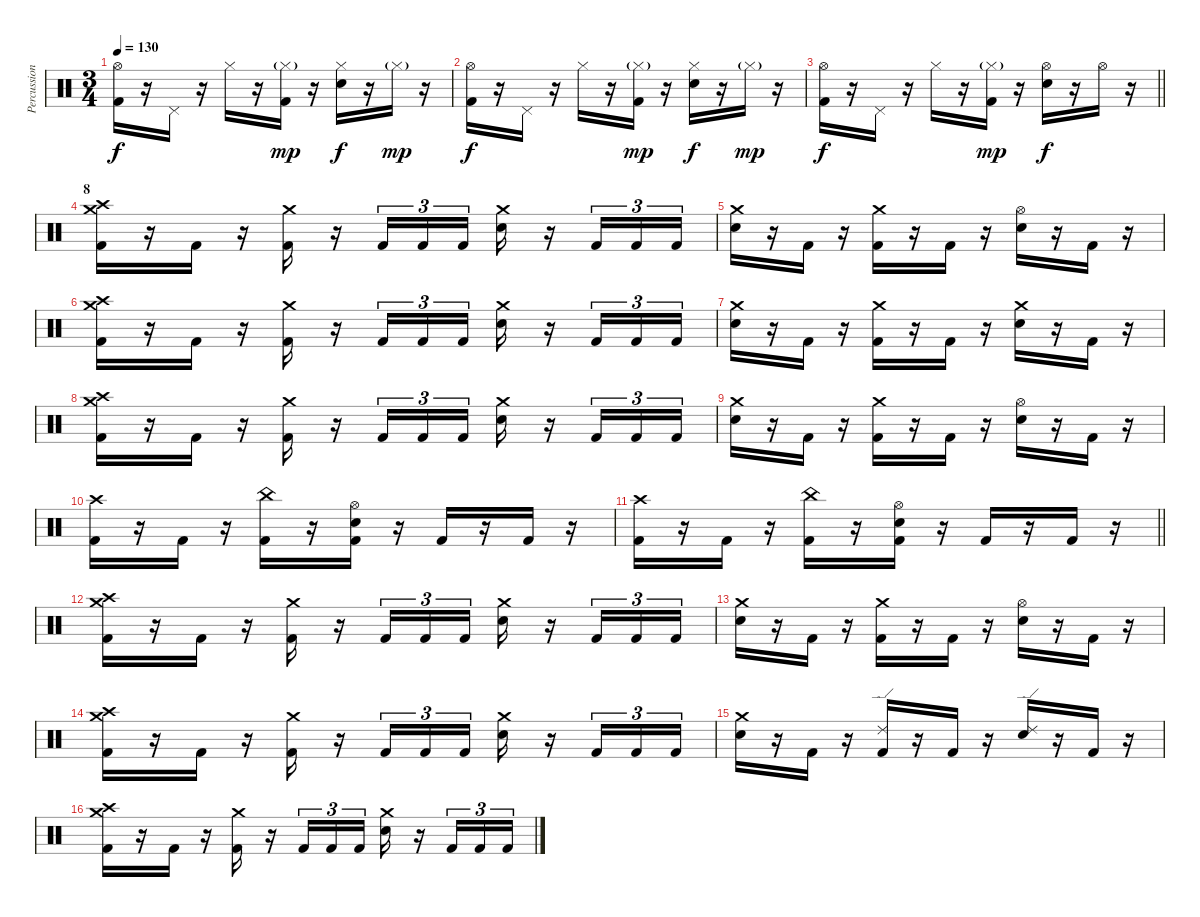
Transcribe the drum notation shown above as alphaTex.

\track ("Percussion" "Percussion") {instrument percussion}
\staff {score}
\articulation defaults
\ts (3 4)
\tempo 130
\clef neutral
\ks c
("Hi-Hat (open)" "Kick (hit) 2").16{dy f} r.16 "Pedal Hi-Hat (hit)".16 r.16 "Hi-Hat (closed)".16 r.16 ("Hi-Hat (closed)"{g} "Kick (hit) 2").16{dy mp} r.16 ("Hi-Hat (closed)" "Snare (hit) 2").16{dy f} r.16 "Hi-Hat (closed)"{g}.16{dy mp} r.16 |
("Hi-Hat (open)" "Kick (hit) 2").16{dy f} r.16 "Pedal Hi-Hat (hit)".16 r.16 "Hi-Hat (closed)".16 r.16 ("Hi-Hat (closed)"{g} "Kick (hit) 2").16{dy mp} r.16 ("Hi-Hat (closed)" "Snare (hit) 2").16{dy f} r.16 "Hi-Hat (closed)"{g}.16{dy mp} r.16 |
\barLineRight lightlight
("Hi-Hat (open)" "Kick (hit) 2").16{dy f} r.16 "Pedal Hi-Hat (hit)".16 r.16 "Hi-Hat (closed)".16 r.16 ("Hi-Hat (closed)"{g} "Kick (hit) 2").16{dy mp} r.16 ("Hi-Hat (open)" "Snare (hit) 2").16{dy f} r.16 "Hi-Hat (open)".16 r.16 |
\section ("" "8")
("Crash medium (hit)" "Crash high (hit)" "Kick (hit) 2").16 r.16 "Kick (hit) 2".16 r.16 ("Crash medium (hit)" "Kick (hit) 2").16 r.16 "Kick (hit) 2".16{tu (3 2)} "Kick (hit) 2".16{tu (3 2)} "Kick (hit) 2".16{tu (3 2)} ("Crash medium (hit)" "Snare (hit) 2").16 r.16 "Kick (hit) 2".16{tu (3 2)} "Kick (hit) 2".16{tu (3 2)} "Kick (hit) 2".16{tu (3 2)} |
("Crash medium (hit)" "Snare (hit) 2").16 r.16 "Kick (hit) 2".16 r.16 ("Crash medium (hit)" "Kick (hit) 2").16 r.16 "Kick (hit) 2".16 r.16 ("Hi-Hat (open)" "Snare (hit) 2").16 r.16 "Kick (hit) 2".16 r.16 |
("Crash medium (hit)" "Crash high (hit)" "Kick (hit) 2").16 r.16 "Kick (hit) 2".16 r.16 ("Crash medium (hit)" "Kick (hit) 2").16 r.16 "Kick (hit) 2".16{tu (3 2)} "Kick (hit) 2".16{tu (3 2)} "Kick (hit) 2".16{tu (3 2)} ("Crash medium (hit)" "Snare (hit) 2").16 r.16 "Kick (hit) 2".16{tu (3 2)} "Kick (hit) 2".16{tu (3 2)} "Kick (hit) 2".16{tu (3 2)} |
("Crash medium (hit)" "Snare (hit) 2").16 r.16 "Kick (hit) 2".16 r.16 ("Crash medium (hit)" "Kick (hit) 2").16 r.16 "Kick (hit) 2".16 r.16 ("Crash medium (hit)" "Snare (hit) 2").16 r.16 "Kick (hit) 2".16 r.16 |
("Crash medium (hit)" "Crash high (hit)" "Kick (hit) 2").16 r.16 "Kick (hit) 2".16 r.16 ("Crash medium (hit)" "Kick (hit) 2").16 r.16 "Kick (hit) 2".16{tu (3 2)} "Kick (hit) 2".16{tu (3 2)} "Kick (hit) 2".16{tu (3 2)} ("Crash medium (hit)" "Snare (hit) 2").16 r.16 "Kick (hit) 2".16{tu (3 2)} "Kick (hit) 2".16{tu (3 2)} "Kick (hit) 2".16{tu (3 2)} |
("Crash medium (hit)" "Snare (hit) 2").16 r.16 "Kick (hit) 2".16 r.16 ("Crash medium (hit)" "Kick (hit) 2").16 r.16 "Kick (hit) 2".16 r.16 ("Hi-Hat (open)" "Snare (hit) 2").16 r.16 "Kick (hit) 2".16 r.16 |
("Crash high (hit)" "Kick (hit) 2").16 r.16 "Kick (hit) 2".16 r.16 ("China (hit)" "Kick (hit) 2").16 r.16 ("Hi-Hat (open)" "Snare (hit) 2" "Kick (hit) 2").16 r.16 "Kick (hit) 2".16 r.16 "Kick (hit) 2".16 r.16 |
\barLineRight lightlight
("Crash high (hit)" "Kick (hit) 2").16 r.16 "Kick (hit) 2".16 r.16 ("China (hit)" "Kick (hit) 2").16 r.16 ("Hi-Hat (open)" "Snare (hit) 2" "Kick (hit) 2").16 r.16 "Kick (hit) 2".16 r.16 "Kick (hit) 2".16 r.16 |
\section ("" "")
("Crash medium (hit)" "Crash high (hit)" "Kick (hit) 2").16 r.16 "Kick (hit) 2".16 r.16 ("Crash medium (hit)" "Kick (hit) 2").16 r.16 "Kick (hit) 2".16{tu (3 2)} "Kick (hit) 2".16{tu (3 2)} "Kick (hit) 2".16{tu (3 2)} ("Crash medium (hit)" "Snare (hit) 2").16 r.16 "Kick (hit) 2".16{tu (3 2)} "Kick (hit) 2".16{tu (3 2)} "Kick (hit) 2".16{tu (3 2)} |
("Crash medium (hit)" "Snare (hit) 2").16 r.16 "Kick (hit) 2".16 r.16 ("Crash medium (hit)" "Kick (hit) 2").16 r.16 "Kick (hit) 2".16 r.16 ("Hi-Hat (open)" "Snare (hit) 2").16 r.16 "Kick (hit) 2".16 r.16 |
("Crash medium (hit)" "Crash high (hit)" "Kick (hit) 2").16 r.16 "Kick (hit) 2".16 r.16 ("Crash medium (hit)" "Kick (hit) 2").16 r.16 "Kick (hit) 2".16{tu (3 2)} "Kick (hit) 2".16{tu (3 2)} "Kick (hit) 2".16{tu (3 2)} ("Crash medium (hit)" "Snare (hit) 2").16 r.16 "Kick (hit) 2".16{tu (3 2)} "Kick (hit) 2".16{tu (3 2)} "Kick (hit) 2".16{tu (3 2)} |
("Crash medium (hit)" "Snare (hit) 2").16 r.16 "Kick (hit) 2".16 r.16 ("Ride (edge) 2" "Kick (hit) 2").16 r.16 "Kick (hit) 2".16 r.16 ("Ride (edge) 2" "Snare (hit) 2").16 r.16 "Kick (hit) 2".16 r.16 |
("Crash medium (hit)" "Crash high (hit)" "Kick (hit) 2").16 r.16 "Kick (hit) 2".16 r.16 ("Crash medium (hit)" "Kick (hit) 2").16 r.16 "Kick (hit) 2".16{tu (3 2)} "Kick (hit) 2".16{tu (3 2)} "Kick (hit) 2".16{tu (3 2)} ("Crash medium (hit)" "Snare (hit) 2").16 r.16 "Kick (hit) 2".16{tu (3 2)} "Kick (hit) 2".16{tu (3 2)} "Kick (hit) 2".16{tu (3 2)}
